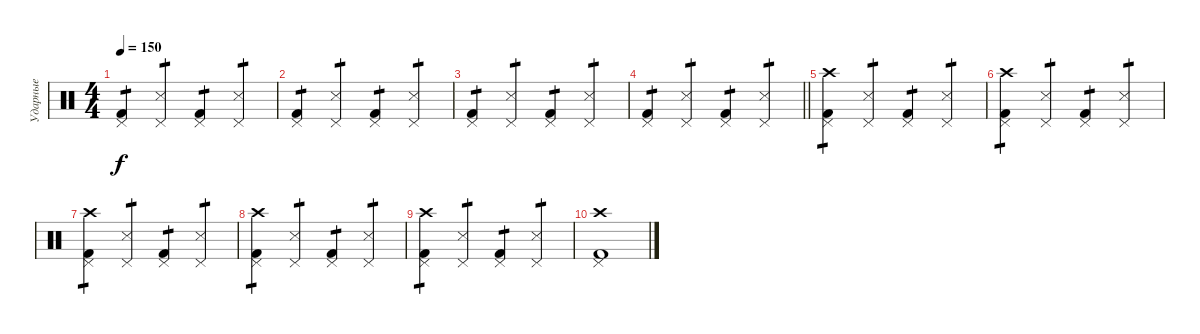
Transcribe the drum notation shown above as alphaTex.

\track ("Ударные" "Ударные") {instrument percussion}
\staff {score}
\articulation defaults
\ts (4 4)
\tempo 150
\clef neutral
\ks c
("Pedal Hi-Hat (hit)" "Kick (hit) 2").4{tp 1 dy f} ("Pedal Hi-Hat (hit)" "Snare (side stick) 3").4{tp 1} ("Pedal Hi-Hat (hit)" "Kick (hit) 2").4{tp 1} ("Pedal Hi-Hat (hit)" "Snare (side stick) 3").4{tp 1} |
("Pedal Hi-Hat (hit)" "Kick (hit) 2").4{tp 1} ("Pedal Hi-Hat (hit)" "Snare (side stick) 3").4{tp 1} ("Pedal Hi-Hat (hit)" "Kick (hit) 2").4{tp 1} ("Pedal Hi-Hat (hit)" "Snare (side stick) 3").4{tp 1} |
("Pedal Hi-Hat (hit)" "Kick (hit) 2").4{tp 1} ("Pedal Hi-Hat (hit)" "Snare (side stick) 3").4{tp 1} ("Pedal Hi-Hat (hit)" "Kick (hit) 2").4{tp 1} ("Pedal Hi-Hat (hit)" "Snare (side stick) 3").4{tp 1} |
\barLineRight lightlight
("Pedal Hi-Hat (hit)" "Kick (hit) 2").4{tp 1} ("Pedal Hi-Hat (hit)" "Snare (side stick) 3").4{tp 1} ("Pedal Hi-Hat (hit)" "Kick (hit) 2").4{tp 1} ("Pedal Hi-Hat (hit)" "Snare (side stick) 3").4{tp 1} |
("Pedal Hi-Hat (hit)" "Kick (hit) 2" "Crash high (hit)").4{tp 1} ("Pedal Hi-Hat (hit)" "Snare (side stick) 3").4{tp 1} ("Pedal Hi-Hat (hit)" "Kick (hit) 2").4{tp 1} ("Pedal Hi-Hat (hit)" "Snare (side stick) 3").4{tp 1} |
("Pedal Hi-Hat (hit)" "Kick (hit) 2" "Crash high (hit)").4{tp 1} ("Pedal Hi-Hat (hit)" "Snare (side stick) 3").4{tp 1} ("Pedal Hi-Hat (hit)" "Kick (hit) 2").4{tp 1} ("Pedal Hi-Hat (hit)" "Snare (side stick) 3").4{tp 1} |
("Pedal Hi-Hat (hit)" "Kick (hit) 2" "Crash high (hit)").4{tp 1} ("Pedal Hi-Hat (hit)" "Snare (side stick) 3").4{tp 1} ("Pedal Hi-Hat (hit)" "Kick (hit) 2").4{tp 1} ("Pedal Hi-Hat (hit)" "Snare (side stick) 3").4{tp 1} |
("Pedal Hi-Hat (hit)" "Kick (hit) 2" "Crash high (hit)").4{tp 1} ("Pedal Hi-Hat (hit)" "Snare (side stick) 3").4{tp 1} ("Pedal Hi-Hat (hit)" "Kick (hit) 2").4{tp 1} ("Pedal Hi-Hat (hit)" "Snare (side stick) 3").4{tp 1} |
("Pedal Hi-Hat (hit)" "Kick (hit) 2" "Crash high (hit)").4{tp 1} ("Pedal Hi-Hat (hit)" "Snare (side stick) 3").4{tp 1} ("Pedal Hi-Hat (hit)" "Kick (hit) 2").4{tp 1} ("Pedal Hi-Hat (hit)" "Snare (side stick) 3").4{tp 1} |
("Pedal Hi-Hat (hit)" "Kick (hit) 2" "Crash high (hit)").1
